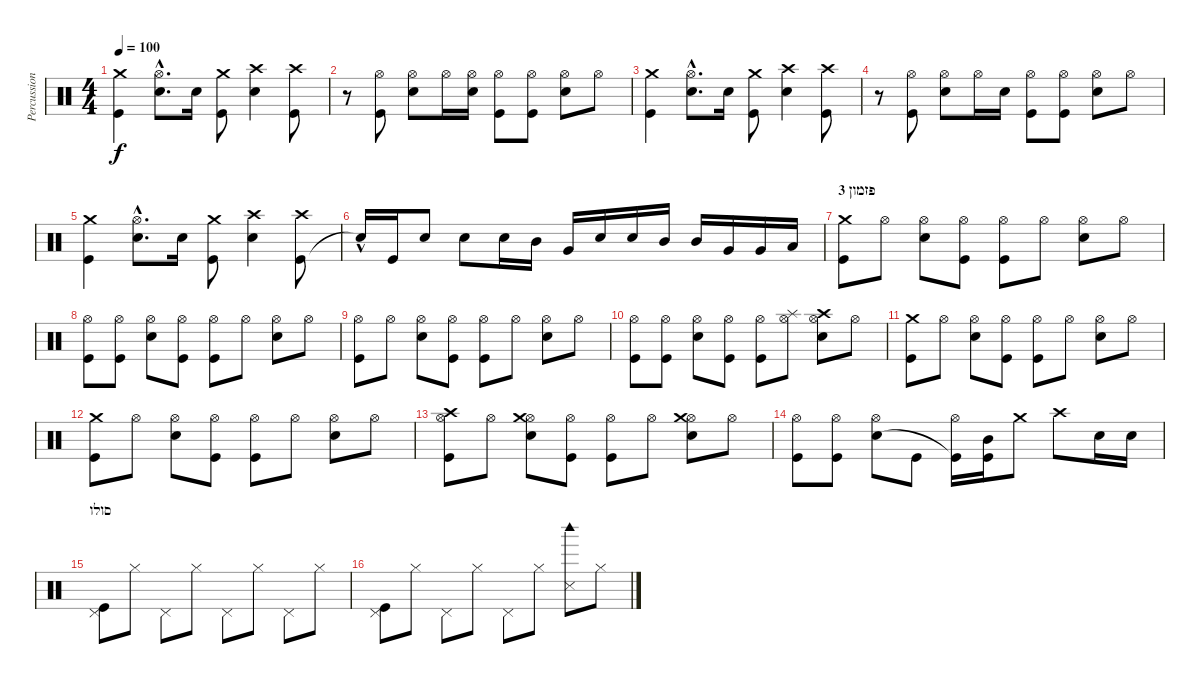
\track ("Percussion" "Percussion") {instrument percussion}
\staff {score}
\articulation defaults
\ts (4 4)
\tempo 100
\clef neutral
\ks c
("Kick (hit)" "Crash medium (hit)").4{dy f} ("Hi-Hat (open)"{hac} "Snare (hit) 2"{hac}).8{d} "Snare (hit) 2".16 ("Kick (hit)" "Crash medium (hit)").8 ("Snare (hit) 2" "Crash high (hit)").4 ("Kick (hit)" "Crash high (hit)").8 |
r.8 ("Hi-Hat (open)" "Kick (hit)").8 ("Hi-Hat (open)" "Snare (hit) 2").8 "Hi-Hat (open)".16 ("Hi-Hat (open)" "Snare (hit) 2").16 ("Hi-Hat (open)" "Kick (hit)").8 ("Hi-Hat (open)" "Kick (hit)").8 ("Hi-Hat (open)" "Snare (hit) 2").8 "Hi-Hat (open)".8 |
("Kick (hit)" "Crash medium (hit)").4 ("Hi-Hat (open)"{hac} "Snare (hit) 2"{hac}).8{d} "Snare (hit) 2".16 ("Kick (hit)" "Crash medium (hit)").8 ("Snare (hit) 2" "Crash high (hit)").4 ("Kick (hit)" "Crash high (hit)").8 |
r.8 ("Hi-Hat (open)" "Kick (hit)").8 ("Hi-Hat (open)" "Snare (hit) 2").8 "Hi-Hat (open)".16 "Snare (hit) 2".16 ("Hi-Hat (open)" "Kick (hit)").8 ("Hi-Hat (open)" "Kick (hit)").8 ("Hi-Hat (open)" "Snare (hit) 2").8 "Hi-Hat (open)".8 |
("Kick (hit)" "Crash medium (hit)").4 ("Hi-Hat (open)"{hac} "Snare (hit) 2"{hac}).8{d} "Snare (hit) 2".16 ("Kick (hit)" "Crash medium (hit)").8 ("Snare (hit) 2" "Crash high (hit)").4 ("Kick (hit)" "Crash high (hit)").8 |
"Snare (hit)"{hac t}.16 "Kick (hit)".16 "Snare (hit) 2".8 "Snare (hit) 2".8 "Snare (hit) 2".16 "Mid Tom (hit)".16 "Very Low Tom (hit)".16 "Snare (hit) 2".16 "Snare (hit) 2".16 "Mid Tom (hit)".16 "Mid Tom (hit)".16 "Very Low Tom (hit)".16 "Very Low Tom (hit)".16 "Low Floor Tom (hit)".16 |
\section ("" "פזמון 3")
("Kick (hit)" "Crash medium (hit)").8 "Hi-Hat (open)".8 ("Hi-Hat (open)" "Snare (hit) 2").8 ("Hi-Hat (open)" "Kick (hit)").8 ("Hi-Hat (open)" "Kick (hit)").8 "Hi-Hat (open)".8 ("Hi-Hat (open)" "Snare (hit) 2").8 "Hi-Hat (open)".8 |
("Hi-Hat (open)" "Kick (hit)").8 ("Hi-Hat (open)" "Kick (hit)").8 ("Hi-Hat (open)" "Snare (hit) 2").8 ("Hi-Hat (open)" "Kick (hit)").8 ("Hi-Hat (open)" "Kick (hit)").8 "Hi-Hat (open)".8 ("Hi-Hat (open)" "Snare (hit) 2").8 "Hi-Hat (open)".8 |
("Hi-Hat (open)" "Kick (hit)").8 "Hi-Hat (open)".8 ("Hi-Hat (open)" "Snare (hit) 2").8 ("Hi-Hat (open)" "Kick (hit)").8 ("Hi-Hat (open)" "Kick (hit)").8 "Hi-Hat (open)".8 ("Hi-Hat (open)" "Snare (hit) 2").8 "Hi-Hat (open)".8 |
("Hi-Hat (open)" "Kick (hit)").8 ("Hi-Hat (open)" "Kick (hit)").8 ("Hi-Hat (open)" "Snare (hit) 2").8 ("Hi-Hat (open)" "Kick (hit)").8 ("Hi-Hat (open)" "Kick (hit)").8 ("Hi-Hat (open)" "Splash (hit)").8 ("Hi-Hat (open)" "Snare (hit) 2" "Crash high (hit)").8 "Hi-Hat (open)".8 |
("Kick (hit)" "Crash medium (hit)").8 "Hi-Hat (open)".8 ("Hi-Hat (open)" "Snare (hit) 2").8 ("Hi-Hat (open)" "Kick (hit)").8 ("Hi-Hat (open)" "Kick (hit)").8 "Hi-Hat (open)".8 ("Hi-Hat (open)" "Snare (hit) 2").8 "Hi-Hat (open)".8 |
("Kick (hit)" "Crash medium (hit)").8 "Hi-Hat (open)".8 ("Hi-Hat (open)" "Snare (hit) 2").8 ("Hi-Hat (open)" "Kick (hit)").8 ("Hi-Hat (open)" "Kick (hit)").8 "Hi-Hat (open)".8 ("Hi-Hat (open)" "Snare (hit) 2").8 "Hi-Hat (open)".8 |
("Hi-Hat (open)" "Kick (hit)" "Crash high (hit)").8 "Hi-Hat (open)".8 ("Hi-Hat (open)" "Snare (hit) 2" "Crash medium (hit)").8 ("Hi-Hat (open)" "Kick (hit)").8 ("Hi-Hat (open)" "Kick (hit)").8 "Hi-Hat (open)".8 ("Hi-Hat (open)" "Snare (hit) 2" "Crash medium (hit)").8 "Hi-Hat (open)".8 |
("Hi-Hat (open)" "Kick (hit)").8 ("Hi-Hat (open)" "Kick (hit)").8 ("Hi-Hat (open)" "Snare (hit) 2").8 "Kick (hit)".8 ("Hi-Hat (open)" "Kick (hit)"{t}).16 ("Kick (hit)" "Mid Tom (hit)").16 "Crash medium (hit)".8 "Crash high (hit)".8 "Snare (hit) 2".16 "Snare (hit) 2".16 |
\section ("" "סולו")
("Pedal Hi-Hat (hit)" "Kick (hit)").8 "Hi-Hat (closed)".8 "Pedal Hi-Hat (hit)".8 "Hi-Hat (closed)".8 "Pedal Hi-Hat (hit)".8 "Hi-Hat (closed)".8 "Pedal Hi-Hat (hit)".8 "Hi-Hat (closed)".8 |
("Pedal Hi-Hat (hit)" "Kick (hit)").8 "Hi-Hat (closed)".8 "Pedal Hi-Hat (hit)".8 "Hi-Hat (closed)".8 "Pedal Hi-Hat (hit)".8 "Hi-Hat (closed)".8 ("Snare (side stick) 3" "Woodblock high (hit)").8 "Hi-Hat (closed)".8
